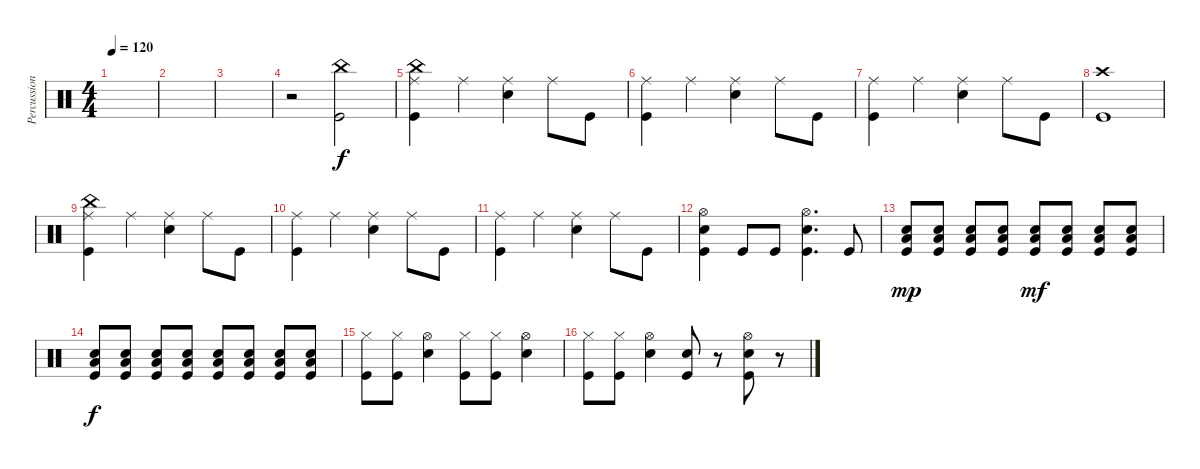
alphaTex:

\track ("Percussions" "Percussion") {instrument percussion}
\staff {score}
\articulation defaults
\ts (4 4)
\tempo 120
\clef neutral
\ks c
|
|
|
r.2 ("China (hit)" "Kick (hit)").2 |
("China (hit)" "Ride (middle)" "Kick (hit)").4 "Ride (middle)".4 ("Ride (middle)" "Electric Snare (hit)").4 "Ride (middle)".8 "Kick (hit)".8 |
("Ride (middle)" "Kick (hit)").4 "Ride (middle)".4 ("Ride (middle)" "Electric Snare (hit)").4 "Ride (middle)".8 "Kick (hit)".8 |
("Ride (middle)" "Kick (hit)").4 "Ride (middle)".4 ("Ride (middle)" "Electric Snare (hit)").4 "Ride (middle)".8 "Kick (hit)".8 |
("Crash high (hit)" "Kick (hit)").1 |
("China (hit)" "Ride (middle)" "Kick (hit)").4 "Ride (middle)".4 ("Ride (middle)" "Electric Snare (hit)").4 "Ride (middle)".8 "Kick (hit)".8 |
("Ride (middle)" "Kick (hit)").4 "Ride (middle)".4 ("Ride (middle)" "Electric Snare (hit)").4 "Ride (middle)".8 "Kick (hit)".8 |
("Ride (middle)" "Kick (hit)").4 "Ride (middle)".4 ("Ride (middle)" "Electric Snare (hit)").4 "Ride (middle)".8 "Kick (hit)".8 |
("Hi-Hat (open)" "Electric Snare (hit)" "Kick (hit)").4 "Kick (hit)".8 "Kick (hit)".8 ("Hi-Hat (open)" "Electric Snare (hit)" "Kick (hit)").4{d} "Kick (hit)".8 |
("Electric Snare (hit)" "Low Floor Tom (hit)" "Kick (hit)").8{dy mp} ("Electric Snare (hit)" "Low Floor Tom (hit)" "Kick (hit)").8 ("Electric Snare (hit)" "Low Floor Tom (hit)" "Kick (hit)").8 ("Electric Snare (hit)" "Low Floor Tom (hit)" "Kick (hit)").8 ("Electric Snare (hit)" "Low Floor Tom (hit)" "Kick (hit)").8{dy mf} ("Electric Snare (hit)" "Low Floor Tom (hit)" "Kick (hit)").8 ("Electric Snare (hit)" "Low Floor Tom (hit)" "Kick (hit)").8 ("Electric Snare (hit)" "Low Floor Tom (hit)" "Kick (hit)").8 |
("Electric Snare (hit)" "Low Floor Tom (hit)" "Kick (hit)").8{dy f} ("Electric Snare (hit)" "Low Floor Tom (hit)" "Kick (hit)").8 ("Electric Snare (hit)" "Low Floor Tom (hit)" "Kick (hit)").8 ("Electric Snare (hit)" "Low Floor Tom (hit)" "Kick (hit)").8 ("Electric Snare (hit)" "Low Floor Tom (hit)" "Kick (hit)").8 ("Electric Snare (hit)" "Low Floor Tom (hit)" "Kick (hit)").8 ("Electric Snare (hit)" "Low Floor Tom (hit)" "Kick (hit)").8 ("Electric Snare (hit)" "Low Floor Tom (hit)" "Kick (hit)").8 |
("Hi-Hat (closed)" "Kick (hit)").8 ("Hi-Hat (closed)" "Kick (hit)").8 ("Hi-Hat (open)" "Electric Snare (hit)").4 ("Hi-Hat (closed)" "Kick (hit)").8 ("Hi-Hat (closed)" "Kick (hit)").8 ("Hi-Hat (open)" "Electric Snare (hit)").4 |
("Hi-Hat (closed)" "Kick (hit)").8 ("Hi-Hat (closed)" "Kick (hit)").8 ("Hi-Hat (open)" "Electric Snare (hit)").4 ("Electric Snare (hit)" "Kick (hit)").8 r.8 ("Hi-Hat (open)" "Electric Snare (hit)" "Kick (hit)").8 r.8
